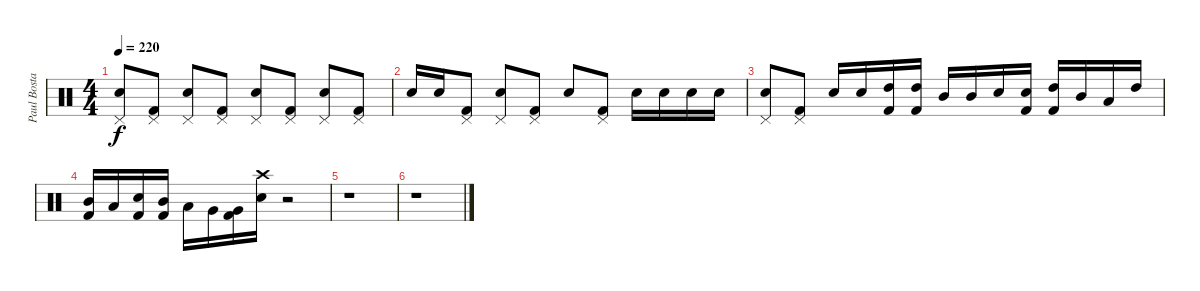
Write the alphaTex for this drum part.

\track ("Paul Bostaph" "Paul Bosta") {instrument percussion}
\staff {score}
\articulation defaults
\ts (4 4)
\tempo 220
\clef neutral
\ks c
("Snare (hit) 2" "Pedal Hi-Hat (hit)").8{dy f} ("Kick (hit) 2" "Pedal Hi-Hat (hit)").8 ("Snare (hit) 2" "Pedal Hi-Hat (hit)").8 ("Kick (hit) 2" "Pedal Hi-Hat (hit)").8 ("Snare (hit) 2" "Pedal Hi-Hat (hit)").8 ("Kick (hit) 2" "Pedal Hi-Hat (hit)").8 ("Snare (hit) 2" "Pedal Hi-Hat (hit)").8 ("Kick (hit) 2" "Pedal Hi-Hat (hit)").8 |
"Snare (hit) 2".16 "Snare (hit) 2".16 ("Kick (hit) 2" "Pedal Hi-Hat (hit)").8 ("Snare (hit) 2" "Pedal Hi-Hat (hit)").8 ("Kick (hit) 2" "Pedal Hi-Hat (hit)").8 "Snare (hit) 2".8 ("Kick (hit) 2" "Pedal Hi-Hat (hit)").8 "Snare (hit) 2".16 "Snare (hit) 2".16 "Snare (hit) 2".16 "Snare (hit) 2".16 |
("Snare (hit) 2" "Pedal Hi-Hat (hit)").8 ("Kick (hit) 2" "Pedal Hi-Hat (hit)").8 "Snare (hit) 2".16 "Snare (hit) 2".16 ("High Tom (hit)" "Kick (hit) 2").16 ("High Tom (hit)" "Kick (hit) 2").16 "Mid Tom (hit)".16 "Mid Tom (hit)".16 "Snare (hit) 2".16 ("Snare (hit) 2" "Kick (hit) 2").16 ("High Tom (hit)" "Kick (hit) 2").16 "Mid Tom (hit)".16 "Low Tom (hit)".16 "High Tom (hit)".16 |
("Mid Tom (hit)" "Kick (hit) 2").16 "Low Tom (hit)".16 ("Snare (hit) 2" "Kick (hit) 2").16 ("Mid Tom (hit)" "Kick (hit) 2").16 "Low Tom (hit)".16 "Very Low Tom (hit)".16 ("Very Low Tom (hit)" "Kick (hit) 2").16 ("Snare (hit) 2" "Crash high (hit)").16 r.2 |
r.1 |
r.1
